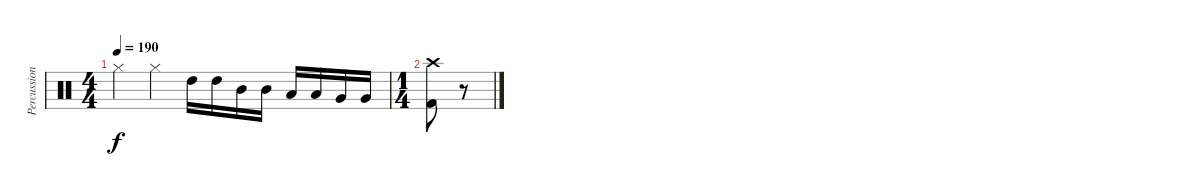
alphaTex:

\track ("Percussion" "Percussion") {instrument percussion}
\staff {score}
\articulation defaults
\ts (4 4)
\tempo 190
\clef neutral
\ks c "Hi-Hat (closed)".4{dy f} "Hi-Hat (closed)".4 "High Tom (hit)".16 "High Tom (hit)".16 "Mid Tom (hit)".16 "Mid Tom (hit)".16 "Low Tom (hit)".16 "Low Tom (hit)".16 "Very Low Tom (hit)".16 "Very Low Tom (hit)".16
|
\ts (1 4)
("Crash high (hit)" "Kick (hit) 2").8 r.8{volume 0}
